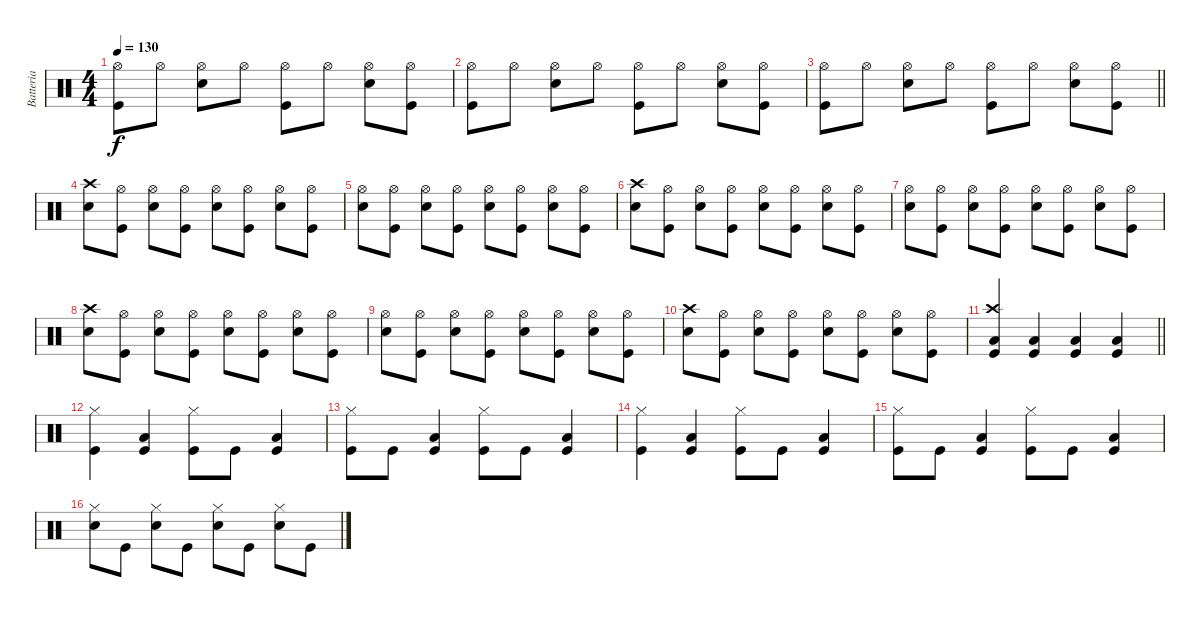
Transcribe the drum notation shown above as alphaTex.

\track ("Batteria" "Batteria") {instrument percussion}
\staff {score}
\articulation defaults
\ts (4 4)
\tempo 130
\clef neutral
\ks c
("Kick (hit)" "Hi-Hat (open)").8{dy f} "Hi-Hat (open)".8 ("Snare (hit) 2" "Hi-Hat (open)").8 "Hi-Hat (open)".8 ("Kick (hit)" "Hi-Hat (open)").8 "Hi-Hat (open)".8 ("Snare (hit) 2" "Hi-Hat (open)").8 ("Kick (hit)" "Hi-Hat (open)").8 |
("Kick (hit)" "Hi-Hat (open)").8 "Hi-Hat (open)".8 ("Snare (hit) 2" "Hi-Hat (open)").8 "Hi-Hat (open)".8 ("Kick (hit)" "Hi-Hat (open)").8 "Hi-Hat (open)".8 ("Snare (hit) 2" "Hi-Hat (open)").8 ("Kick (hit)" "Hi-Hat (open)").8 |
\barLineRight lightlight
("Kick (hit)" "Hi-Hat (open)").8 "Hi-Hat (open)".8 ("Snare (hit) 2" "Hi-Hat (open)").8 "Hi-Hat (open)".8 ("Kick (hit)" "Hi-Hat (open)").8 "Hi-Hat (open)".8 ("Snare (hit) 2" "Hi-Hat (open)").8 ("Kick (hit)" "Hi-Hat (open)").8 |
("Snare (hit) 2" "Crash high (hit)").8 ("Kick (hit)" "Hi-Hat (open)").8 ("Snare (hit) 2" "Hi-Hat (open)").8 ("Kick (hit)" "Hi-Hat (open)").8 ("Snare (hit) 2" "Hi-Hat (open)").8 ("Kick (hit)" "Hi-Hat (open)").8 ("Snare (hit) 2" "Hi-Hat (open)").8 ("Kick (hit)" "Hi-Hat (open)").8 |
("Snare (hit) 2" "Hi-Hat (open)").8 ("Kick (hit)" "Hi-Hat (open)").8 ("Snare (hit) 2" "Hi-Hat (open)").8 ("Kick (hit)" "Hi-Hat (open)").8 ("Snare (hit) 2" "Hi-Hat (open)").8 ("Kick (hit)" "Hi-Hat (open)").8 ("Snare (hit) 2" "Hi-Hat (open)").8 ("Kick (hit)" "Hi-Hat (open)").8 |
("Snare (hit) 2" "Crash high (hit)").8 ("Kick (hit)" "Hi-Hat (open)").8 ("Snare (hit) 2" "Hi-Hat (open)").8 ("Kick (hit)" "Hi-Hat (open)").8 ("Snare (hit) 2" "Hi-Hat (open)").8 ("Kick (hit)" "Hi-Hat (open)").8 ("Snare (hit) 2" "Hi-Hat (open)").8 ("Kick (hit)" "Hi-Hat (open)").8 |
("Snare (hit) 2" "Hi-Hat (open)").8 ("Kick (hit)" "Hi-Hat (open)").8 ("Snare (hit) 2" "Hi-Hat (open)").8 ("Kick (hit)" "Hi-Hat (open)").8 ("Snare (hit) 2" "Hi-Hat (open)").8 ("Kick (hit)" "Hi-Hat (open)").8 ("Snare (hit) 2" "Hi-Hat (open)").8 ("Kick (hit)" "Hi-Hat (open)").8 |
("Snare (hit) 2" "Crash high (hit)").8 ("Kick (hit)" "Hi-Hat (open)").8 ("Snare (hit) 2" "Hi-Hat (open)").8 ("Kick (hit)" "Hi-Hat (open)").8 ("Snare (hit) 2" "Hi-Hat (open)").8 ("Kick (hit)" "Hi-Hat (open)").8 ("Snare (hit) 2" "Hi-Hat (open)").8 ("Kick (hit)" "Hi-Hat (open)").8 |
("Snare (hit) 2" "Hi-Hat (open)").8 ("Kick (hit)" "Hi-Hat (open)").8 ("Snare (hit) 2" "Hi-Hat (open)").8 ("Kick (hit)" "Hi-Hat (open)").8 ("Snare (hit) 2" "Hi-Hat (open)").8 ("Kick (hit)" "Hi-Hat (open)").8 ("Snare (hit) 2" "Hi-Hat (open)").8 ("Kick (hit)" "Hi-Hat (open)").8 |
("Snare (hit) 2" "Crash high (hit)").8 ("Kick (hit)" "Hi-Hat (open)").8 ("Snare (hit) 2" "Hi-Hat (open)").8 ("Kick (hit)" "Hi-Hat (open)").8 ("Snare (hit) 2" "Hi-Hat (open)").8 ("Kick (hit)" "Hi-Hat (open)").8 ("Snare (hit) 2" "Hi-Hat (open)").8 ("Kick (hit)" "Hi-Hat (open)").8 |
\barLineRight lightlight
("Kick (hit)" "Crash high (hit)" "Low Floor Tom (hit)").4 ("Kick (hit)" "Low Floor Tom (hit)").4 ("Kick (hit)" "Low Floor Tom (hit)").4 ("Kick (hit)" "Low Floor Tom (hit)").4 |
("Hi-Hat (closed)" "Kick (hit)").4 ("Kick (hit)" "Low Floor Tom (hit)").4 ("Hi-Hat (closed)" "Kick (hit)").8 "Kick (hit)".8 ("Kick (hit)" "Low Floor Tom (hit)").4 |
("Hi-Hat (closed)" "Kick (hit)").8 "Kick (hit)".8 ("Kick (hit)" "Low Floor Tom (hit)").4 ("Hi-Hat (closed)" "Kick (hit)").8 "Kick (hit)".8 ("Kick (hit)" "Low Floor Tom (hit)").4 |
("Hi-Hat (closed)" "Kick (hit)").4 ("Kick (hit)" "Low Floor Tom (hit)").4 ("Hi-Hat (closed)" "Kick (hit)").8 "Kick (hit)".8 ("Kick (hit)" "Low Floor Tom (hit)").4 |
("Hi-Hat (closed)" "Kick (hit)").8 "Kick (hit)".8 ("Kick (hit)" "Low Floor Tom (hit)").4 ("Hi-Hat (closed)" "Kick (hit)").8 "Kick (hit)".8 ("Kick (hit)" "Low Floor Tom (hit)").4 |
("Hi-Hat (closed)" "Snare (hit) 2").8 "Kick (hit)".8 ("Hi-Hat (closed)" "Snare (hit) 2").8 "Kick (hit)".8 ("Hi-Hat (closed)" "Snare (hit) 2").8 "Kick (hit)".8 ("Hi-Hat (closed)" "Snare (hit) 2").8 "Kick (hit)".8
